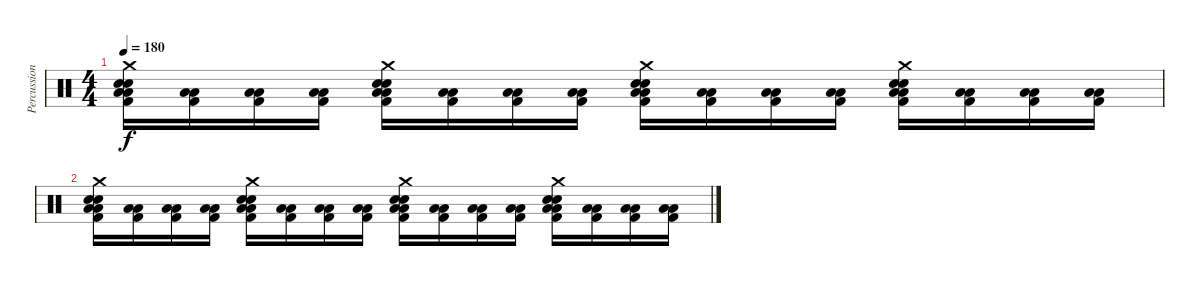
\track ("Percussions" "Percussion") {instrument percussion}
\staff {score}
\articulation defaults
\ts (4 4)
\tempo 180
\clef neutral
\ks c
("Low Floor Tom (hit)" "Kick (hit) 2" "Low Floor Tom (hit)" "Snare (hit) 2" "Electric Snare (hit)" "Crash medium (hit)").16{dy f volume 1} ("Low Floor Tom (hit)" "Kick (hit) 2" "Low Floor Tom (hit)").16 ("Low Floor Tom (hit)" "Kick (hit) 2" "Low Floor Tom (hit)").16 ("Low Floor Tom (hit)" "Kick (hit) 2" "Low Floor Tom (hit)").16 ("Low Floor Tom (hit)" "Kick (hit) 2" "Low Floor Tom (hit)" "Snare (hit) 2" "Electric Snare (hit)" "Crash medium (hit)").16 ("Low Floor Tom (hit)" "Kick (hit) 2" "Low Floor Tom (hit)").16 ("Low Floor Tom (hit)" "Kick (hit) 2" "Low Floor Tom (hit)").16 ("Low Floor Tom (hit)" "Kick (hit) 2" "Low Floor Tom (hit)").16 ("Low Floor Tom (hit)" "Kick (hit) 2" "Low Floor Tom (hit)" "Snare (hit) 2" "Electric Snare (hit)" "Crash medium (hit)").16 ("Low Floor Tom (hit)" "Kick (hit) 2" "Low Floor Tom (hit)").16 ("Low Floor Tom (hit)" "Kick (hit) 2" "Low Floor Tom (hit)").16 ("Low Floor Tom (hit)" "Kick (hit) 2" "Low Floor Tom (hit)").16 ("Low Floor Tom (hit)" "Kick (hit) 2" "Low Floor Tom (hit)" "Snare (hit) 2" "Electric Snare (hit)" "Crash medium (hit)").16 ("Low Floor Tom (hit)" "Kick (hit) 2" "Low Floor Tom (hit)").16 ("Low Floor Tom (hit)" "Kick (hit) 2" "Low Floor Tom (hit)").16 ("Low Floor Tom (hit)" "Kick (hit) 2" "Low Floor Tom (hit)").16 |
("Low Floor Tom (hit)" "Kick (hit) 2" "Low Floor Tom (hit)" "Snare (hit) 2" "Electric Snare (hit)" "Crash medium (hit)").16{volume 0} ("Low Floor Tom (hit)" "Kick (hit) 2" "Low Floor Tom (hit)").16 ("Low Floor Tom (hit)" "Kick (hit) 2" "Low Floor Tom (hit)").16 ("Low Floor Tom (hit)" "Kick (hit) 2" "Low Floor Tom (hit)").16 ("Low Floor Tom (hit)" "Kick (hit) 2" "Low Floor Tom (hit)" "Snare (hit) 2" "Electric Snare (hit)" "Crash medium (hit)").16 ("Low Floor Tom (hit)" "Kick (hit) 2" "Low Floor Tom (hit)").16 ("Low Floor Tom (hit)" "Kick (hit) 2" "Low Floor Tom (hit)").16 ("Low Floor Tom (hit)" "Kick (hit) 2" "Low Floor Tom (hit)").16 ("Low Floor Tom (hit)" "Kick (hit) 2" "Low Floor Tom (hit)" "Snare (hit) 2" "Electric Snare (hit)" "Crash medium (hit)").16 ("Low Floor Tom (hit)" "Kick (hit) 2" "Low Floor Tom (hit)").16 ("Low Floor Tom (hit)" "Kick (hit) 2" "Low Floor Tom (hit)").16 ("Low Floor Tom (hit)" "Kick (hit) 2" "Low Floor Tom (hit)").16 ("Low Floor Tom (hit)" "Kick (hit) 2" "Low Floor Tom (hit)" "Snare (hit) 2" "Electric Snare (hit)" "Crash medium (hit)").16 ("Low Floor Tom (hit)" "Kick (hit) 2" "Low Floor Tom (hit)").16 ("Low Floor Tom (hit)" "Kick (hit) 2" "Low Floor Tom (hit)").16 ("Low Floor Tom (hit)" "Kick (hit) 2" "Low Floor Tom (hit)").16
